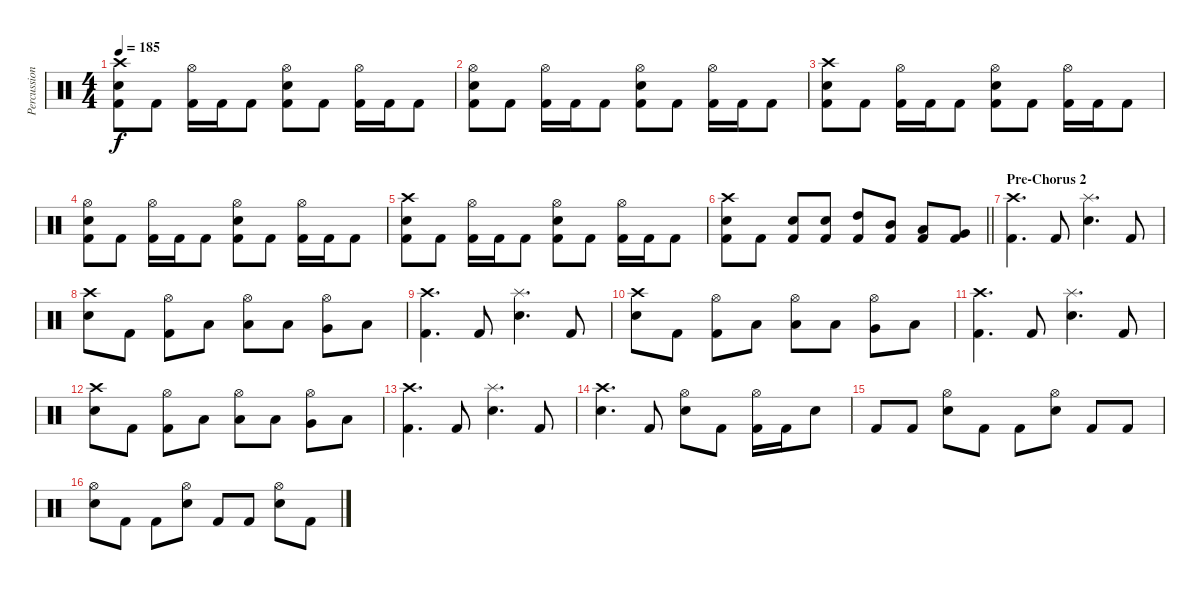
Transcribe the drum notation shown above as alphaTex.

\track ("Percussion" "Percussion") {instrument percussion}
\staff {score}
\articulation defaults
\ts (4 4)
\tempo 185
\clef neutral
\ks c
("Crash high (hit)" "Snare (hit) 2" "Kick (hit) 2").8{dy f} "Kick (hit) 2".8 ("Hi-Hat (open)" "Kick (hit) 2").16 "Kick (hit) 2".16 "Kick (hit) 2".8 ("Hi-Hat (open)" "Snare (hit) 2" "Kick (hit) 2").8 "Kick (hit) 2".8 ("Hi-Hat (open)" "Kick (hit) 2").16 "Kick (hit) 2".16 "Kick (hit) 2".8 |
("Hi-Hat (open)" "Snare (hit) 2" "Kick (hit) 2").8 "Kick (hit) 2".8 ("Hi-Hat (open)" "Kick (hit) 2").16 "Kick (hit) 2".16 "Kick (hit) 2".8 ("Hi-Hat (open)" "Snare (hit) 2" "Kick (hit) 2").8 "Kick (hit) 2".8 ("Hi-Hat (open)" "Kick (hit) 2").16 "Kick (hit) 2".16 "Kick (hit) 2".8 |
("Crash high (hit)" "Snare (hit) 2" "Kick (hit) 2").8 "Kick (hit) 2".8 ("Hi-Hat (open)" "Kick (hit) 2").16 "Kick (hit) 2".16 "Kick (hit) 2".8 ("Hi-Hat (open)" "Snare (hit) 2" "Kick (hit) 2").8 "Kick (hit) 2".8 ("Hi-Hat (open)" "Kick (hit) 2").16 "Kick (hit) 2".16 "Kick (hit) 2".8 |
("Hi-Hat (open)" "Snare (hit) 2" "Kick (hit) 2").8 "Kick (hit) 2".8 ("Hi-Hat (open)" "Kick (hit) 2").16 "Kick (hit) 2".16 "Kick (hit) 2".8 ("Hi-Hat (open)" "Snare (hit) 2" "Kick (hit) 2").8 "Kick (hit) 2".8 ("Hi-Hat (open)" "Kick (hit) 2").16 "Kick (hit) 2".16 "Kick (hit) 2".8 |
("Crash high (hit)" "Snare (hit) 2" "Kick (hit) 2").8 "Kick (hit) 2".8 ("Hi-Hat (open)" "Kick (hit) 2").16 "Kick (hit) 2".16 "Kick (hit) 2".8 ("Hi-Hat (open)" "Snare (hit) 2" "Kick (hit) 2").8 "Kick (hit) 2".8 ("Hi-Hat (open)" "Kick (hit) 2").16 "Kick (hit) 2".16 "Kick (hit) 2".8 |
\barLineRight lightlight
("Crash high (hit)" "Snare (hit) 2" "Kick (hit) 2").8 "Kick (hit) 2".8 ("Snare (hit) 2" "Kick (hit) 2").8 ("Snare (hit) 2" "Kick (hit) 2").8 ("High Tom (hit)" "Kick (hit) 2").8 ("Mid Tom (hit)" "Kick (hit) 2").8 ("Low Tom (hit)" "Kick (hit) 2").8 ("Very Low Tom (hit)" "Kick (hit) 2").8 |
\section ("" "Pre-Chorus 2")
("Crash high (hit)" "Kick (hit) 2").4{d} "Kick (hit) 2".8 ("Splash (hit)" "Snare (hit) 2").4{d} "Kick (hit) 2".8 |
("Crash high (hit)" "Snare (hit) 2").8 "Kick (hit) 2".8 ("Hi-Hat (open)" "Kick (hit) 2").8 "Low Tom (hit)".8 ("Low Floor Tom (hit)" "Hi-Hat (open)").8 "Low Tom (hit)".8 ("Very Low Tom (hit)" "Hi-Hat (open)").8 "Low Floor Tom (hit)".8 |
("Crash high (hit)" "Kick (hit) 2").4{d} "Kick (hit) 2".8 ("Splash (hit)" "Snare (hit) 2").4{d} "Kick (hit) 2".8 |
("Crash high (hit)" "Snare (hit) 2").8 "Kick (hit) 2".8 ("Hi-Hat (open)" "Kick (hit) 2").8 "Low Tom (hit)".8 ("Low Floor Tom (hit)" "Hi-Hat (open)").8 "Low Tom (hit)".8 ("Very Low Tom (hit)" "Hi-Hat (open)").8 "Low Floor Tom (hit)".8 |
("Crash high (hit)" "Kick (hit) 2").4{d} "Kick (hit) 2".8 ("Splash (hit)" "Snare (hit) 2").4{d} "Kick (hit) 2".8 |
("Crash high (hit)" "Snare (hit) 2").8 "Kick (hit) 2".8 ("Hi-Hat (open)" "Kick (hit) 2").8 "Low Tom (hit)".8 ("Low Floor Tom (hit)" "Hi-Hat (open)").8 "Low Tom (hit)".8 ("Very Low Tom (hit)" "Hi-Hat (open)").8 "Low Floor Tom (hit)".8 |
("Crash high (hit)" "Kick (hit) 2").4{d} "Kick (hit) 2".8 ("Splash (hit)" "Snare (hit) 2").4{d} "Kick (hit) 2".8 |
("Crash high (hit)" "Snare (hit) 2").4{d} "Kick (hit) 2".8 ("Hi-Hat (open)" "Snare (hit) 2").8 "Kick (hit) 2".8 ("Hi-Hat (open)" "Kick (hit) 2").16 "Kick (hit) 2".16 "Snare (hit) 2".8 |
"Kick (hit) 2".8 "Kick (hit) 2".8 ("Hi-Hat (open)" "Snare (hit) 2").8 "Kick (hit) 2".8 "Kick (hit) 2".8 ("Hi-Hat (open)" "Snare (hit) 2").8 "Kick (hit) 2".8 "Kick (hit) 2".8 |
("Hi-Hat (open)" "Snare (hit) 2").8 "Kick (hit) 2".8 "Kick (hit) 2".8 ("Hi-Hat (open)" "Snare (hit) 2").8 "Kick (hit) 2".8 "Kick (hit) 2".8 ("Hi-Hat (open)" "Snare (hit) 2").8 "Kick (hit) 2".8
